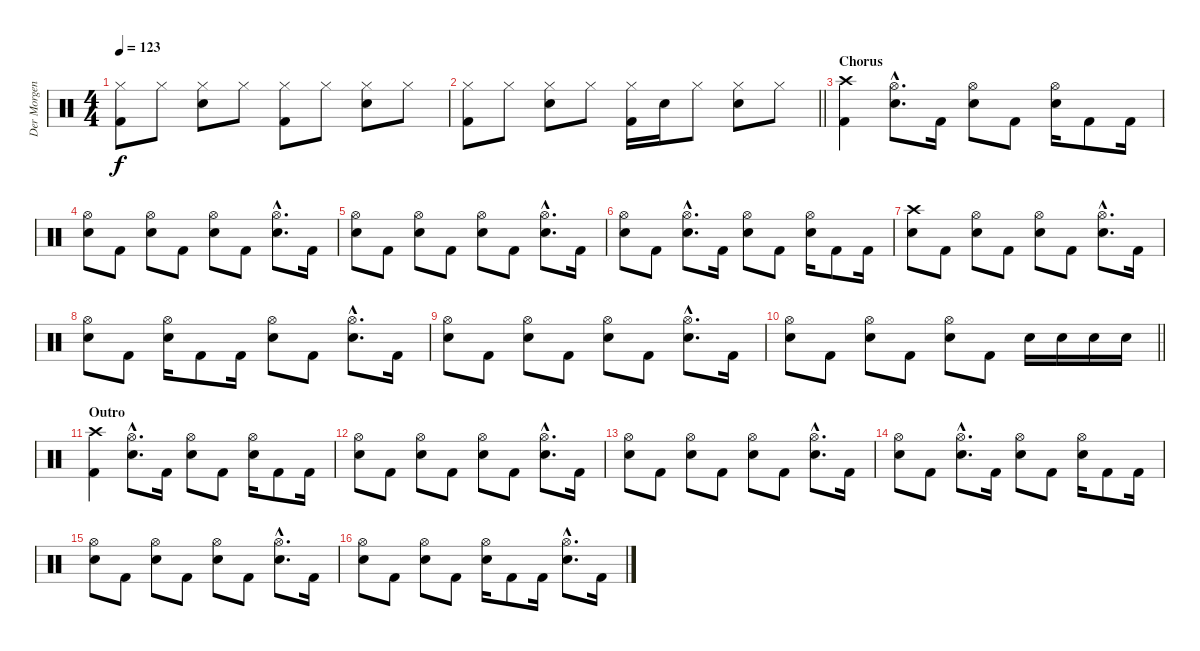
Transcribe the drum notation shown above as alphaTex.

\track ("Der Morgenstern" "Der Morgen") {instrument percussion}
\staff {score}
\articulation defaults
\ts (4 4)
\tempo 123
\clef neutral
\ks c
("Hi-Hat (closed)" "Kick (hit) 2").8{dy f} "Hi-Hat (closed)".8 ("Hi-Hat (closed)" "Electric Snare (hit)").8 "Hi-Hat (closed)".8 ("Hi-Hat (closed)" "Kick (hit) 2").8 "Hi-Hat (closed)".8 ("Hi-Hat (closed)" "Electric Snare (hit)").8 "Hi-Hat (closed)".8 |
\barLineRight lightlight
("Hi-Hat (closed)" "Kick (hit) 2").8 "Hi-Hat (closed)".8 ("Hi-Hat (closed)" "Electric Snare (hit)").8 "Hi-Hat (closed)".8 ("Hi-Hat (closed)" "Kick (hit) 2").16 "Electric Snare (hit)".16 "Hi-Hat (closed)".8 ("Hi-Hat (closed)" "Electric Snare (hit)").8 "Hi-Hat (closed)".8 |
\section ("" "Chorus")
("Crash high (hit)" "Kick (hit) 2").4 ("Hi-Hat (open)"{hac} "Electric Snare (hit)"{hac}).8{d} "Kick (hit) 2".16 ("Hi-Hat (open)" "Electric Snare (hit)").8 "Kick (hit) 2".8 ("Hi-Hat (open)" "Electric Snare (hit)").16 "Kick (hit) 2".8 "Kick (hit) 2".16 |
("Hi-Hat (open)" "Electric Snare (hit)").8 "Kick (hit) 2".8 ("Hi-Hat (open)" "Electric Snare (hit)").8 "Kick (hit) 2".8 ("Hi-Hat (open)" "Electric Snare (hit)").8 "Kick (hit) 2".8 ("Hi-Hat (open)"{hac} "Electric Snare (hit)"{hac}).8{d} "Kick (hit) 2".16 |
("Hi-Hat (open)" "Electric Snare (hit)").8 "Kick (hit) 2".8 ("Hi-Hat (open)" "Electric Snare (hit)").8 "Kick (hit) 2".8 ("Hi-Hat (open)" "Electric Snare (hit)").8 "Kick (hit) 2".8 ("Hi-Hat (open)"{hac} "Electric Snare (hit)"{hac}).8{d} "Kick (hit) 2".16 |
("Hi-Hat (open)" "Electric Snare (hit)").8 "Kick (hit) 2".8 ("Hi-Hat (open)"{hac} "Electric Snare (hit)"{hac}).8{d} "Kick (hit) 2".16 ("Hi-Hat (open)" "Electric Snare (hit)").8 "Kick (hit) 2".8 ("Hi-Hat (open)" "Electric Snare (hit)").16 "Kick (hit) 2".8 "Kick (hit) 2".16 |
("Crash high (hit)" "Electric Snare (hit)").8 "Kick (hit) 2".8 ("Hi-Hat (open)" "Electric Snare (hit)").8 "Kick (hit) 2".8 ("Hi-Hat (open)" "Electric Snare (hit)").8 "Kick (hit) 2".8 ("Hi-Hat (open)"{hac} "Electric Snare (hit)"{hac}).8{d} "Kick (hit) 2".16 |
("Hi-Hat (open)" "Electric Snare (hit)").8 "Kick (hit) 2".8 ("Hi-Hat (open)" "Electric Snare (hit)").16 "Kick (hit) 2".8 "Kick (hit) 2".16 ("Hi-Hat (open)" "Electric Snare (hit)").8 "Kick (hit) 2".8 ("Hi-Hat (open)"{hac} "Electric Snare (hit)"{hac}).8{d} "Kick (hit) 2".16 |
("Hi-Hat (open)" "Electric Snare (hit)").8 "Kick (hit) 2".8 ("Hi-Hat (open)" "Electric Snare (hit)").8 "Kick (hit) 2".8 ("Hi-Hat (open)" "Electric Snare (hit)").8 "Kick (hit) 2".8 ("Hi-Hat (open)"{hac} "Electric Snare (hit)"{hac}).8{d} "Kick (hit) 2".16 |
\barLineRight lightlight
("Hi-Hat (open)" "Electric Snare (hit)").8 "Kick (hit) 2".8 ("Hi-Hat (open)" "Electric Snare (hit)").8 "Kick (hit) 2".8 ("Hi-Hat (open)" "Electric Snare (hit)").8 "Kick (hit) 2".8 "Electric Snare (hit)".16 "Electric Snare (hit)".16 "Electric Snare (hit)".16 "Electric Snare (hit)".16 |
\section ("" "Outro")
("Crash high (hit)" "Kick (hit) 2").4 ("Hi-Hat (open)"{hac} "Electric Snare (hit)"{hac}).8{d} "Kick (hit) 2".16 ("Hi-Hat (open)" "Electric Snare (hit)").8 "Kick (hit) 2".8 ("Hi-Hat (open)" "Electric Snare (hit)").16 "Kick (hit) 2".8 "Kick (hit) 2".16 |
("Hi-Hat (open)" "Electric Snare (hit)").8 "Kick (hit) 2".8 ("Hi-Hat (open)" "Electric Snare (hit)").8 "Kick (hit) 2".8 ("Hi-Hat (open)" "Electric Snare (hit)").8 "Kick (hit) 2".8 ("Hi-Hat (open)"{hac} "Electric Snare (hit)"{hac}).8{d} "Kick (hit) 2".16 |
("Hi-Hat (open)" "Electric Snare (hit)").8 "Kick (hit) 2".8 ("Hi-Hat (open)" "Electric Snare (hit)").8 "Kick (hit) 2".8 ("Hi-Hat (open)" "Electric Snare (hit)").8 "Kick (hit) 2".8 ("Hi-Hat (open)"{hac} "Electric Snare (hit)"{hac}).8{d} "Kick (hit) 2".16 |
("Hi-Hat (open)" "Electric Snare (hit)").8 "Kick (hit) 2".8 ("Hi-Hat (open)"{hac} "Electric Snare (hit)"{hac}).8{d} "Kick (hit) 2".16 ("Hi-Hat (open)" "Electric Snare (hit)").8 "Kick (hit) 2".8 ("Hi-Hat (open)" "Electric Snare (hit)").16 "Kick (hit) 2".8 "Kick (hit) 2".16 |
("Hi-Hat (open)" "Electric Snare (hit)").8 "Kick (hit) 2".8 ("Hi-Hat (open)" "Electric Snare (hit)").8 "Kick (hit) 2".8 ("Hi-Hat (open)" "Electric Snare (hit)").8 "Kick (hit) 2".8 ("Hi-Hat (open)"{hac} "Electric Snare (hit)"{hac}).8{d} "Kick (hit) 2".16 |
("Hi-Hat (open)" "Electric Snare (hit)").8 "Kick (hit) 2".8 ("Hi-Hat (open)" "Electric Snare (hit)").8 "Kick (hit) 2".8 ("Hi-Hat (open)" "Electric Snare (hit)").16 "Kick (hit) 2".8 "Kick (hit) 2".16 ("Hi-Hat (open)"{hac} "Electric Snare (hit)"{hac}).8{d} "Kick (hit) 2".16
